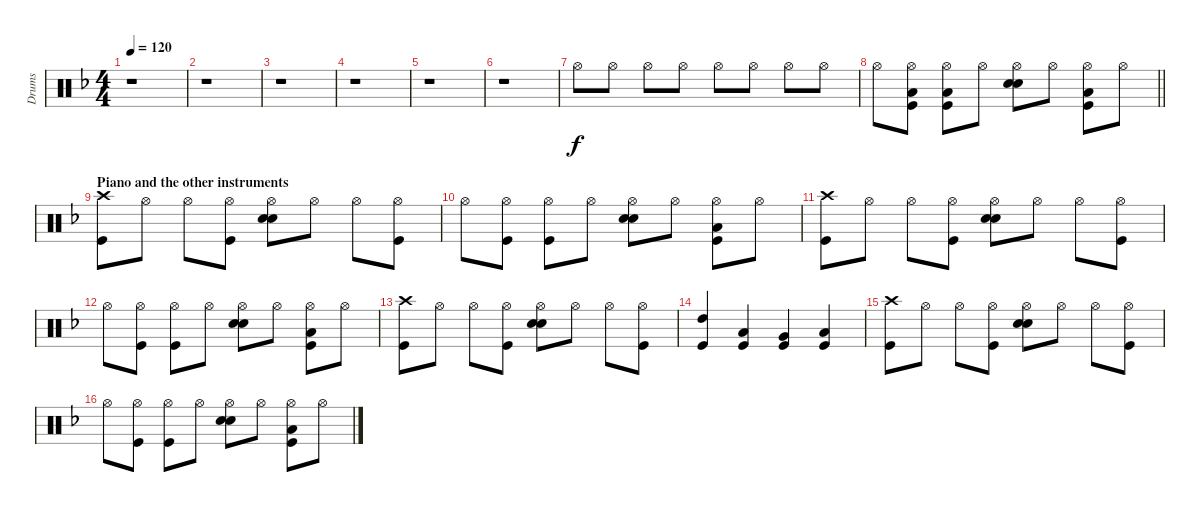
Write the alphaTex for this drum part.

\track ("Drums" "Drums") {instrument percussion}
\staff {score}
\articulation defaults
\ts (4 4)
\tempo 120
\clef neutral
\ks f
r.1{dy f volume 0} |
r.1 |
r.1 |
r.1 |
r.1 |
r.1 |
"Hi-Hat (open)".8{volume 16} "Hi-Hat (open)".8 "Hi-Hat (open)".8 "Hi-Hat (open)".8 "Hi-Hat (open)".8 "Hi-Hat (open)".8 "Hi-Hat (open)".8 "Hi-Hat (open)".8 |
\barLineRight lightlight "Hi-Hat (open)".8
("Hi-Hat (open)" "Kick (hit)" "Low Floor Tom (hit)").8 ("Hi-Hat (open)" "Kick (hit)" "Low Floor Tom (hit)").8 "Hi-Hat (open)".8 ("Hi-Hat (open)" "Electric Snare (hit)" "Snare (hit) 2").8 "Hi-Hat (open)".8 ("Hi-Hat (open)" "Kick (hit)" "Low Floor Tom (hit)").8 "Hi-Hat (open)".8 |
\section ("" "Piano and the other instruments")
("Crash high (hit)" "Kick (hit)").8 "Hi-Hat (open)".8 "Hi-Hat (open)".8 ("Hi-Hat (open)" "Kick (hit)").8 ("Hi-Hat (open)" "Electric Snare (hit)" "Snare (hit) 2").8 "Hi-Hat (open)".8 "Hi-Hat (open)".8 ("Hi-Hat (open)" "Kick (hit)").8 |
"Hi-Hat (open)".8 ("Hi-Hat (open)" "Kick (hit)").8 ("Hi-Hat (open)" "Kick (hit)").8 "Hi-Hat (open)".8 ("Hi-Hat (open)" "Electric Snare (hit)" "Snare (hit) 2").8 "Hi-Hat (open)".8 ("Hi-Hat (open)" "Low Floor Tom (hit)" "Kick (hit)").8 "Hi-Hat (open)".8 |
("Crash high (hit)" "Kick (hit)").8 "Hi-Hat (open)".8 "Hi-Hat (open)".8 ("Hi-Hat (open)" "Kick (hit)").8 ("Hi-Hat (open)" "Electric Snare (hit)" "Snare (hit) 2").8 "Hi-Hat (open)".8 "Hi-Hat (open)".8 ("Hi-Hat (open)" "Kick (hit)").8 |
"Hi-Hat (open)".8 ("Hi-Hat (open)" "Kick (hit)").8 ("Hi-Hat (open)" "Kick (hit)").8 "Hi-Hat (open)".8 ("Hi-Hat (open)" "Electric Snare (hit)" "Snare (hit) 2").8 "Hi-Hat (open)".8 ("Hi-Hat (open)" "Low Floor Tom (hit)" "Kick (hit)").8 "Hi-Hat (open)".8 |
("Crash high (hit)" "Kick (hit)").8 "Hi-Hat (open)".8 "Hi-Hat (open)".8 ("Hi-Hat (open)" "Kick (hit)").8 ("Hi-Hat (open)" "Electric Snare (hit)" "Snare (hit) 2").8 "Hi-Hat (open)".8 "Hi-Hat (open)".8 ("Hi-Hat (open)" "Kick (hit)").8 |
("High Tom (hit)" "Kick (hit)").4 ("Low Tom (hit)" "Kick (hit)").4 ("Very Low Tom (hit)" "Kick (hit)").4 ("Low Floor Tom (hit)" "Kick (hit)").4 |
("Crash high (hit)" "Kick (hit)").8 "Hi-Hat (open)".8 "Hi-Hat (open)".8 ("Hi-Hat (open)" "Kick (hit)").8 ("Hi-Hat (open)" "Electric Snare (hit)" "Snare (hit) 2").8 "Hi-Hat (open)".8 "Hi-Hat (open)".8 ("Hi-Hat (open)" "Kick (hit)").8 |
"Hi-Hat (open)".8 ("Hi-Hat (open)" "Kick (hit)").8 ("Hi-Hat (open)" "Kick (hit)").8 "Hi-Hat (open)".8 ("Hi-Hat (open)" "Electric Snare (hit)" "Snare (hit) 2").8 "Hi-Hat (open)".8 ("Hi-Hat (open)" "Low Floor Tom (hit)" "Kick (hit)").8 "Hi-Hat (open)".8
